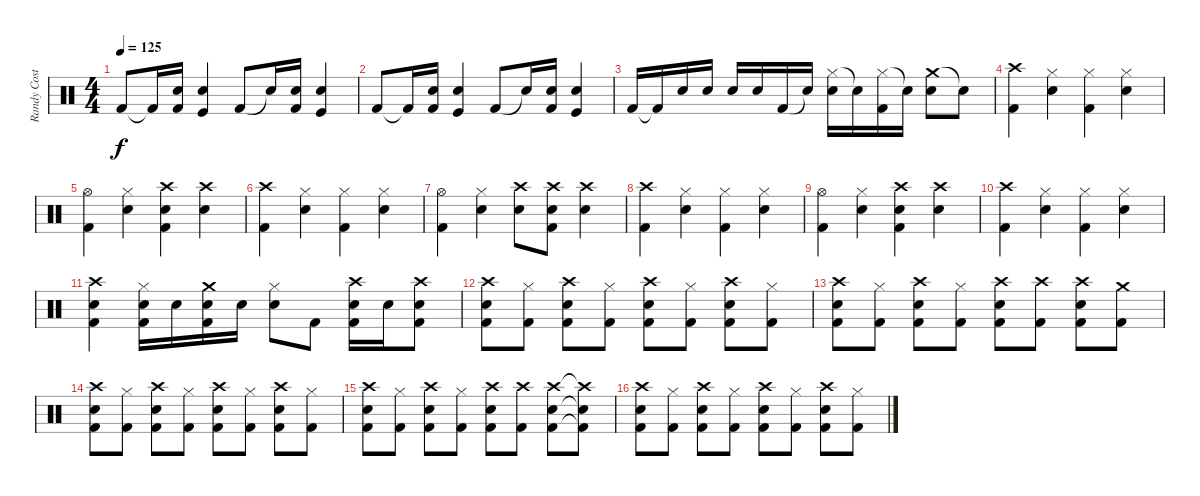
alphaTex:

\track ("Randy Costillo" "Randy Cost") {instrument percussion}
\staff {score}
\articulation defaults
\ts (4 4)
\tempo 125
\clef neutral
\ks c "Kick (hit) 2".8{dy f} "Kick (hit) 2"{t}.16
("Snare (hit) 2" "Kick (hit) 2").16 ("Snare (hit) 2" "Kick (hit)").4 "Kick (hit) 2".8 "Snare (hit)"{t}.16 ("Snare (hit) 2" "Kick (hit) 2").16 ("Snare (hit) 2" "Kick (hit)").4 |
"Kick (hit) 2".8 "Kick (hit) 2"{t}.16 ("Snare (hit) 2" "Kick (hit) 2").16 ("Snare (hit) 2" "Kick (hit)").4 "Kick (hit) 2".8 "Snare (hit)"{t}.16 ("Snare (hit) 2" "Kick (hit) 2").16 ("Snare (hit) 2" "Kick (hit)").4 |
"Kick (hit) 2".16 "Kick (hit) 2"{t}.16 "Snare (hit) 2".16 "Snare (hit) 2".16 "Snare (hit) 2".16 "Snare (hit) 2".16 "Kick (hit) 2".16 "Snare (hit)"{t}.16 ("Hi-Hat (closed)" "Snare (hit) 2").16 "Snare (hit)"{t}.16 ("Hi-Hat (closed)" "Kick (hit) 2").16 "Snare (hit)"{t}.16 ("Crash medium (hit)" "Snare (hit) 2").8 "Snare (hit)"{t}.8 |
("Crash high (hit)" "Kick (hit) 2").4 ("Hi-Hat (closed)" "Snare (hit) 2").4 ("Hi-Hat (closed)" "Kick (hit) 2").4 ("Hi-Hat (closed)" "Snare (hit) 2").4 |
("Hi-Hat (open)" "Kick (hit) 2").4 ("Hi-Hat (closed)" "Snare (hit) 2").4 ("Crash high (hit)" "Snare (hit) 2" "Kick (hit) 2").4 ("Crash high (hit)" "Snare (hit) 2").4 |
("Crash high (hit)" "Kick (hit) 2").4 ("Hi-Hat (closed)" "Snare (hit) 2").4 ("Hi-Hat (closed)" "Kick (hit) 2").4 ("Hi-Hat (closed)" "Snare (hit) 2").4 |
("Hi-Hat (open)" "Kick (hit) 2").4 ("Hi-Hat (closed)" "Snare (hit) 2").4 ("Crash high (hit)" "Snare (hit) 2").8 ("Crash high (hit)" "Snare (hit) 2" "Kick (hit) 2").8 ("Crash high (hit)" "Snare (hit) 2").4 |
("Crash high (hit)" "Kick (hit) 2").4 ("Hi-Hat (closed)" "Snare (hit) 2").4 ("Hi-Hat (closed)" "Kick (hit) 2").4 ("Hi-Hat (closed)" "Snare (hit) 2").4 |
("Hi-Hat (open)" "Kick (hit) 2").4 ("Hi-Hat (closed)" "Snare (hit) 2").4 ("Crash high (hit)" "Snare (hit) 2" "Kick (hit) 2").4 ("Crash high (hit)" "Snare (hit) 2").4 |
("Crash high (hit)" "Kick (hit) 2").4 ("Hi-Hat (closed)" "Snare (hit) 2").4 ("Hi-Hat (closed)" "Kick (hit) 2").4 ("Hi-Hat (closed)" "Snare (hit) 2").4 |
("Crash high (hit)" "Snare (hit) 2" "Kick (hit) 2").4 ("Hi-Hat (closed)" "Snare (hit) 2" "Kick (hit) 2").16 "Snare (hit) 2".16 ("Crash medium (hit)" "Snare (hit) 2" "Kick (hit) 2").16 "Snare (hit) 2".16 ("Hi-Hat (closed)" "Snare (hit) 2").8 "Kick (hit) 2".8 ("Crash high (hit)" "Snare (hit) 2" "Kick (hit) 2").16 "Snare (hit) 2".16 ("Crash high (hit)" "Snare (hit) 2" "Kick (hit) 2").8 |
("Crash high (hit)" "Snare (hit) 2" "Kick (hit) 2").8 ("Hi-Hat (closed)" "Kick (hit) 2").8 ("Crash high (hit)" "Snare (hit) 2" "Kick (hit) 2").8 ("Hi-Hat (closed)" "Kick (hit) 2").8 ("Crash high (hit)" "Snare (hit) 2" "Kick (hit) 2").8 ("Hi-Hat (closed)" "Kick (hit) 2").8 ("Crash high (hit)" "Snare (hit) 2" "Kick (hit) 2").8 ("Hi-Hat (closed)" "Kick (hit) 2").8 |
("Crash high (hit)" "Snare (hit) 2" "Kick (hit) 2").8 ("Hi-Hat (closed)" "Kick (hit) 2").8 ("Crash high (hit)" "Snare (hit) 2" "Kick (hit) 2").8 ("Hi-Hat (closed)" "Kick (hit) 2").8 ("Crash high (hit)" "Snare (hit) 2" "Kick (hit) 2").8 ("Crash high (hit)" "Kick (hit) 2").8 ("Crash high (hit)" "Snare (hit) 2" "Kick (hit) 2").8 ("Crash medium (hit)" "Kick (hit) 2").8 |
("Crash high (hit)" "Snare (hit) 2" "Kick (hit) 2").8 ("Hi-Hat (closed)" "Kick (hit) 2").8 ("Crash high (hit)" "Snare (hit) 2" "Kick (hit) 2").8 ("Hi-Hat (closed)" "Kick (hit) 2").8 ("Crash high (hit)" "Snare (hit) 2" "Kick (hit) 2").8 ("Hi-Hat (closed)" "Kick (hit) 2").8 ("Crash high (hit)" "Snare (hit) 2" "Kick (hit) 2").8 ("Hi-Hat (closed)" "Kick (hit) 2").8 |
("Crash high (hit)" "Snare (hit) 2" "Kick (hit) 2").8 ("Hi-Hat (closed)" "Kick (hit) 2").8 ("Crash high (hit)" "Snare (hit) 2" "Kick (hit) 2").8 ("Hi-Hat (closed)" "Kick (hit) 2").8 ("Crash high (hit)" "Snare (hit) 2" "Kick (hit) 2").8 ("Crash high (hit)" "Kick (hit) 2").8 ("Crash high (hit)" "Snare (hit) 2" "Kick (hit) 2").8 ("Crash high (hit)"{t} "Snare (hit)"{t} "Kick (hit) 2"{t}).8 |
("Crash high (hit)" "Snare (hit) 2" "Kick (hit) 2").8 ("Hi-Hat (closed)" "Kick (hit) 2").8 ("Crash high (hit)" "Snare (hit) 2" "Kick (hit) 2").8 ("Hi-Hat (closed)" "Kick (hit) 2").8 ("Crash high (hit)" "Snare (hit) 2" "Kick (hit) 2").8 ("Hi-Hat (closed)" "Kick (hit) 2").8 ("Crash high (hit)" "Snare (hit) 2" "Kick (hit) 2").8 ("Hi-Hat (closed)" "Kick (hit) 2").8
